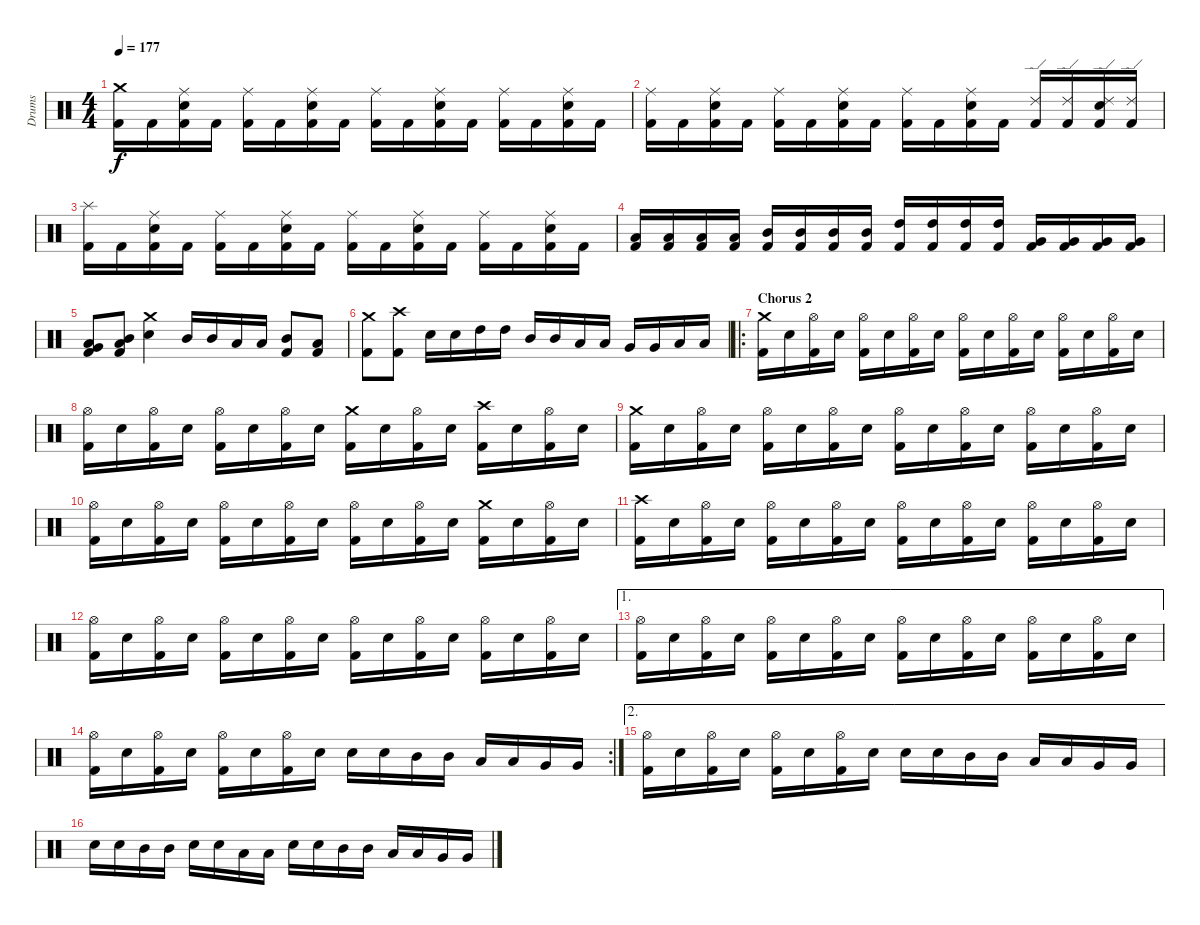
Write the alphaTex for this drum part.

\track ("Drums" "Drums") {instrument percussion}
\staff {score}
\articulation defaults
\ts (4 4)
\tempo 177
\clef neutral
\ks c
("Kick (hit) 2" "Crash medium (hit)").16{dy f} "Kick (hit) 2".16 ("Kick (hit) 2" "Electric Snare (hit)" "Ride (middle)").16 "Kick (hit) 2".16 ("Kick (hit) 2" "Ride (middle)").16 "Kick (hit) 2".16 ("Kick (hit) 2" "Electric Snare (hit)" "Ride (middle)").16 "Kick (hit) 2".16 ("Kick (hit) 2" "Ride (middle)").16 "Kick (hit) 2".16 ("Kick (hit) 2" "Electric Snare (hit)" "Ride (middle)").16 "Kick (hit) 2".16 ("Kick (hit) 2" "Ride (middle)").16 "Kick (hit) 2".16 ("Kick (hit) 2" "Electric Snare (hit)" "Ride (middle)").16 "Kick (hit) 2".16 |
("Kick (hit) 2" "Ride (middle)").16 "Kick (hit) 2".16 ("Kick (hit) 2" "Electric Snare (hit)" "Ride (middle)").16 "Kick (hit) 2".16 ("Kick (hit) 2" "Ride (middle)").16 "Kick (hit) 2".16 ("Kick (hit) 2" "Electric Snare (hit)" "Ride (middle)").16 "Kick (hit) 2".16 ("Kick (hit) 2" "Ride (middle)").16 "Kick (hit) 2".16 ("Kick (hit) 2" "Electric Snare (hit)" "Ride (middle)").16 "Kick (hit) 2".16 ("Kick (hit) 2" "Ride (edge) 2").16 ("Kick (hit) 2" "Ride (edge) 2").16 ("Kick (hit) 2" "Electric Snare (hit)" "Ride (edge) 2").16 ("Kick (hit) 2" "Ride (edge) 2").16 |
("Kick (hit) 2" "Splash (hit)").16 "Kick (hit) 2".16 ("Kick (hit) 2" "Electric Snare (hit)" "Ride (middle)").16 "Kick (hit) 2".16 ("Kick (hit) 2" "Ride (middle)").16 "Kick (hit) 2".16 ("Kick (hit) 2" "Electric Snare (hit)" "Ride (middle)").16 "Kick (hit) 2".16 ("Kick (hit) 2" "Ride (middle)").16 "Kick (hit) 2".16 ("Kick (hit) 2" "Electric Snare (hit)" "Ride (middle)").16 "Kick (hit) 2".16 ("Kick (hit) 2" "Ride (middle)").16 "Kick (hit) 2".16 ("Kick (hit) 2" "Electric Snare (hit)" "Ride (middle)").16 "Kick (hit) 2".16 |
("Kick (hit) 2" "Low Tom (hit)").16 ("Kick (hit) 2" "Low Tom (hit)").16 ("Kick (hit) 2" "Low Tom (hit)").16 ("Kick (hit) 2" "Low Tom (hit)").16 ("Kick (hit) 2" "Mid Tom (hit)").16 ("Kick (hit) 2" "Mid Tom (hit)").16 ("Kick (hit) 2" "Mid Tom (hit)").16 ("Kick (hit) 2" "Mid Tom (hit)").16 ("Kick (hit) 2" "High Tom (hit)").16 ("Kick (hit) 2" "High Tom (hit)").16 ("Kick (hit) 2" "High Tom (hit)").16 ("Kick (hit) 2" "High Tom (hit)").16 ("Kick (hit) 2" "Very Low Tom (hit)").16 ("Kick (hit) 2" "Very Low Tom (hit)").16 ("Kick (hit) 2" "Very Low Tom (hit)").16 ("Kick (hit) 2" "Very Low Tom (hit)").16 |
("Kick (hit) 2" "Very Low Tom (hit)" "Low Tom (hit)").8 ("Kick (hit) 2" "Low Tom (hit)" "Mid Tom (hit)").8 ("Electric Snare (hit)" "Crash medium (hit)").4 "Mid Tom (hit)".16 "Mid Tom (hit)".16 "Low Tom (hit)".16 "Low Tom (hit)".16 ("Kick (hit) 2" "Mid Tom (hit)").8 ("Kick (hit) 2" "Low Tom (hit)").8 |
("Kick (hit) 2" "Crash medium (hit)").8 ("Kick (hit) 2" "Crash high (hit)").8 "Electric Snare (hit)".16 "Electric Snare (hit)".16 "High Tom (hit)".16 "High Tom (hit)".16 "Mid Tom (hit)".16 "Mid Tom (hit)".16 "Low Tom (hit)".16 "Low Tom (hit)".16 "Very Low Tom (hit)".16 "Very Low Tom (hit)".16 "Low Floor Tom (hit)".16 "Low Floor Tom (hit)".16 |
\ro
\section ("" "Chorus 2")
("Kick (hit) 2" "Crash medium (hit)").16 "Electric Snare (hit)".16 ("Kick (hit) 2" "Hi-Hat (open)").16 "Electric Snare (hit)".16 ("Kick (hit) 2" "Hi-Hat (open)").16 "Electric Snare (hit)".16 ("Kick (hit) 2" "Hi-Hat (open)").16 "Electric Snare (hit)".16 ("Kick (hit) 2" "Hi-Hat (open)").16 "Electric Snare (hit)".16 ("Kick (hit) 2" "Hi-Hat (open)").16 "Electric Snare (hit)".16 ("Kick (hit) 2" "Hi-Hat (open)").16 "Electric Snare (hit)".16 ("Kick (hit) 2" "Hi-Hat (open)").16 "Electric Snare (hit)".16 |
("Kick (hit) 2" "Hi-Hat (open)").16 "Electric Snare (hit)".16 ("Kick (hit) 2" "Hi-Hat (open)").16 "Electric Snare (hit)".16 ("Kick (hit) 2" "Hi-Hat (open)").16 "Electric Snare (hit)".16 ("Kick (hit) 2" "Hi-Hat (open)").16 "Electric Snare (hit)".16 ("Kick (hit) 2" "Crash medium (hit)").16 "Electric Snare (hit)".16 ("Kick (hit) 2" "Hi-Hat (open)").16 "Electric Snare (hit)".16 ("Kick (hit) 2" "Crash high (hit)").16 "Electric Snare (hit)".16 ("Kick (hit) 2" "Hi-Hat (open)").16 "Electric Snare (hit)".16 |
("Kick (hit) 2" "Crash medium (hit)").16 "Electric Snare (hit)".16 ("Kick (hit) 2" "Hi-Hat (open)").16 "Electric Snare (hit)".16 ("Kick (hit) 2" "Hi-Hat (open)").16 "Electric Snare (hit)".16 ("Kick (hit) 2" "Hi-Hat (open)").16 "Electric Snare (hit)".16 ("Kick (hit) 2" "Hi-Hat (open)").16 "Electric Snare (hit)".16 ("Kick (hit) 2" "Hi-Hat (open)").16 "Electric Snare (hit)".16 ("Kick (hit) 2" "Hi-Hat (open)").16 "Electric Snare (hit)".16 ("Kick (hit) 2" "Hi-Hat (open)").16 "Electric Snare (hit)".16 |
("Kick (hit) 2" "Hi-Hat (open)").16 "Electric Snare (hit)".16 ("Kick (hit) 2" "Hi-Hat (open)").16 "Electric Snare (hit)".16 ("Kick (hit) 2" "Hi-Hat (open)").16 "Electric Snare (hit)".16 ("Kick (hit) 2" "Hi-Hat (open)").16 "Electric Snare (hit)".16 ("Kick (hit) 2" "Hi-Hat (open)").16 "Electric Snare (hit)".16 ("Kick (hit) 2" "Hi-Hat (open)").16 "Electric Snare (hit)".16 ("Kick (hit) 2" "Crash medium (hit)").16 "Electric Snare (hit)".16 ("Kick (hit) 2" "Hi-Hat (open)").16 "Electric Snare (hit)".16 |
("Kick (hit) 2" "Crash high (hit)").16 "Electric Snare (hit)".16 ("Kick (hit) 2" "Hi-Hat (open)").16 "Electric Snare (hit)".16 ("Kick (hit) 2" "Hi-Hat (open)").16 "Electric Snare (hit)".16 ("Kick (hit) 2" "Hi-Hat (open)").16 "Electric Snare (hit)".16 ("Kick (hit) 2" "Hi-Hat (open)").16 "Electric Snare (hit)".16 ("Kick (hit) 2" "Hi-Hat (open)").16 "Electric Snare (hit)".16 ("Kick (hit) 2" "Hi-Hat (open)").16 "Electric Snare (hit)".16 ("Kick (hit) 2" "Hi-Hat (open)").16 "Electric Snare (hit)".16 |
("Kick (hit) 2" "Hi-Hat (open)").16 "Electric Snare (hit)".16 ("Kick (hit) 2" "Hi-Hat (open)").16 "Electric Snare (hit)".16 ("Kick (hit) 2" "Hi-Hat (open)").16 "Electric Snare (hit)".16 ("Kick (hit) 2" "Hi-Hat (open)").16 "Electric Snare (hit)".16 ("Kick (hit) 2" "Hi-Hat (open)").16 "Electric Snare (hit)".16 ("Kick (hit) 2" "Hi-Hat (open)").16 "Electric Snare (hit)".16 ("Kick (hit) 2" "Hi-Hat (open)").16 "Electric Snare (hit)".16 ("Kick (hit) 2" "Hi-Hat (open)").16 "Electric Snare (hit)".16 |
\ae 1
("Kick (hit) 2" "Hi-Hat (open)").16 "Electric Snare (hit)".16 ("Kick (hit) 2" "Hi-Hat (open)").16 "Electric Snare (hit)".16 ("Kick (hit) 2" "Hi-Hat (open)").16 "Electric Snare (hit)".16 ("Kick (hit) 2" "Hi-Hat (open)").16 "Electric Snare (hit)".16 ("Kick (hit) 2" "Hi-Hat (open)").16 "Electric Snare (hit)".16 ("Kick (hit) 2" "Hi-Hat (open)").16 "Electric Snare (hit)".16 ("Kick (hit) 2" "Hi-Hat (open)").16 "Electric Snare (hit)".16 ("Kick (hit) 2" "Hi-Hat (open)").16 "Electric Snare (hit)".16 |
\rc 2
("Kick (hit) 2" "Hi-Hat (open)").16 "Electric Snare (hit)".16 ("Kick (hit) 2" "Hi-Hat (open)").16 "Electric Snare (hit)".16 ("Kick (hit) 2" "Hi-Hat (open)").16 "Electric Snare (hit)".16 ("Kick (hit) 2" "Hi-Hat (open)").16 "Electric Snare (hit)".16 "Electric Snare (hit)".16 "Electric Snare (hit)".16 "Mid Tom (hit)".16 "Mid Tom (hit)".16 "Low Tom (hit)".16 "Low Tom (hit)".16 "Very Low Tom (hit)".16 "Very Low Tom (hit)".16 |
\ae 2
("Kick (hit) 2" "Hi-Hat (open)").16 "Electric Snare (hit)".16 ("Kick (hit) 2" "Hi-Hat (open)").16 "Electric Snare (hit)".16 ("Kick (hit) 2" "Hi-Hat (open)").16 "Electric Snare (hit)".16 ("Kick (hit) 2" "Hi-Hat (open)").16 "Electric Snare (hit)".16 "Electric Snare (hit)".16 "Electric Snare (hit)".16 "Mid Tom (hit)".16 "Mid Tom (hit)".16 "Low Tom (hit)".16 "Low Tom (hit)".16 "Very Low Tom (hit)".16 "Very Low Tom (hit)".16 |
"Electric Snare (hit)".16 "Electric Snare (hit)".16 "Mid Tom (hit)".16 "Mid Tom (hit)".16 "Electric Snare (hit)".16 "Electric Snare (hit)".16 "Low Tom (hit)".16 "Low Tom (hit)".16 "Electric Snare (hit)".16 "Electric Snare (hit)".16 "Mid Tom (hit)".16 "Mid Tom (hit)".16 "Low Tom (hit)".16 "Low Tom (hit)".16 "Very Low Tom (hit)".16 "Very Low Tom (hit)".16
